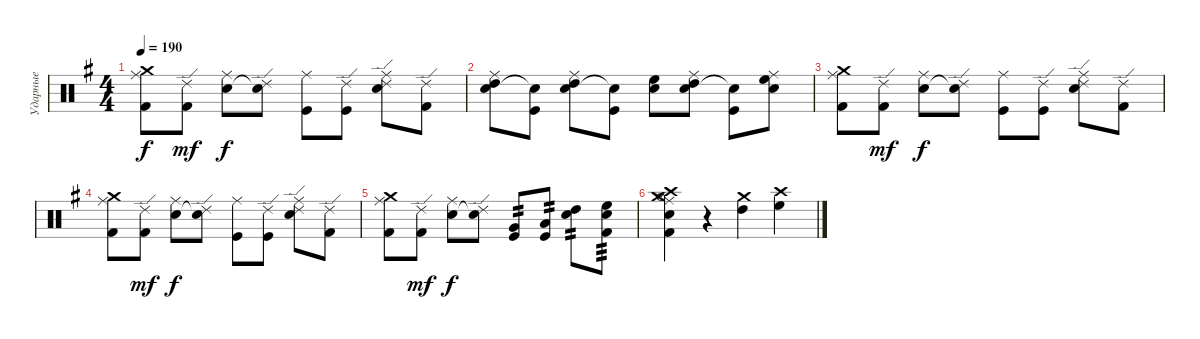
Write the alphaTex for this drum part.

\track ("Ударные" "Ударные") {instrument percussion}
\staff {score}
\articulation defaults
\ts (4 4)
\tempo 190
\clef neutral
\ks g
("Kick (hit) 2" "Ride (middle)" "Crash medium (hit)").8{dy f} ("Kick (hit) 2" "Ride (edge) 2").8{dy mf} ("Snare (hit) 2" "Ride (middle)").8{dy f} ("Snare (hit)"{t} "Ride (edge) 2").8 ("Kick (hit)" "Ride (middle)").8 ("Kick (hit)" "Ride (edge) 2").8 ("Snare (hit) 2" "Ride (edge) 2" "Ride (middle)").8 ("Kick (hit) 2" "Ride (edge) 2").8 |
("Ride (middle)" "Snare (hit) 2" "High Tom (hit)").8 ("Kick (hit)" "Snare (hit)"{t}).8 ("Ride (middle)" "Snare (hit) 2" "High Tom (hit)").8 ("Kick (hit)" "Snare (hit)"{t}).8 ("Snare (hit) 2" "High Floor Tom (hit)").8 ("Ride (middle)" "Snare (hit) 2" "High Tom (hit)").8 ("Kick (hit)" "Snare (hit)"{t}).8 ("Ride (middle)" "Snare (hit) 2" "High Floor Tom (hit)").8 |
("Kick (hit) 2" "Crash medium (hit)" "Ride (middle)").8 ("Kick (hit) 2" "Ride (edge) 2").8{dy mf} ("Snare (hit) 2" "Ride (middle)").8{dy f} ("Snare (hit)"{t} "Ride (edge) 2").8 ("Kick (hit)" "Ride (middle)").8 ("Kick (hit)" "Ride (edge) 2").8 ("Snare (hit) 2" "Ride (edge) 2" "Ride (middle)").8 ("Kick (hit) 2" "Ride (edge) 2").8 |
("Kick (hit) 2" "Ride (middle)" "Crash medium (hit)").8 ("Kick (hit) 2" "Ride (edge) 2").8{dy mf} ("Snare (hit) 2" "Ride (middle)").8{dy f} ("Snare (hit)"{t} "Ride (edge) 2").8 ("Kick (hit)" "Ride (middle)").8 ("Kick (hit)" "Ride (edge) 2").8 ("Snare (hit) 2" "Ride (edge) 2" "Ride (middle)").8 ("Kick (hit) 2" "Ride (edge) 2").8 |
("Kick (hit) 2" "Ride (middle)" "Crash medium (hit)").8 ("Kick (hit) 2" "Ride (edge) 2").8{dy mf} ("Snare (hit) 2" "Ride (middle)").8{dy f} ("Snare (hit)"{t} "Ride (edge) 2").8 ("Kick (hit)" "Very Low Tom (hit)").8{tp 2} ("Kick (hit)" "Low Tom (hit)").8{tp 2} ("Snare (hit) 2" "High Tom (hit)").8{tp 2} ("Kick (hit) 2" "Snare (hit) 2" "High Floor Tom (hit)").8{tp 3} |
("Crash high (hit)" "Hi-Hat (open)" "Crash medium (hit)" "Ride (middle)" "Snare (hit) 2" "Kick (hit) 2").4 r.4 ("High Tom (hit)" "Crash medium (hit)").4 ("High Floor Tom (hit)" "Crash high (hit)").4
